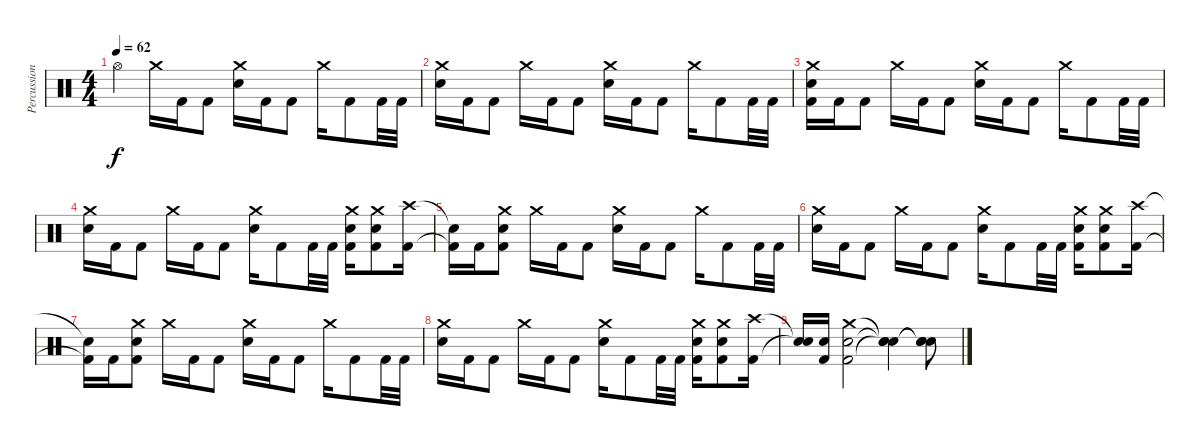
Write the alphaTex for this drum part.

\track ("Percussion" "Percussion") {instrument percussion}
\staff {score}
\articulation defaults
\ts (4 4)
\tempo 62
\clef neutral
\ks c "Hi-Hat (open)".4{dy f} "Crash medium (hit)".16 "Kick (hit) 2".16 "Kick (hit) 2".8
("Crash medium (hit)" "Electric Snare (hit)").16 "Kick (hit) 2".16 "Kick (hit) 2".8 "Crash medium (hit)".16 "Kick (hit) 2".8 "Kick (hit) 2".32 "Kick (hit) 2".32 |
("Crash medium (hit)" "Electric Snare (hit)").16 "Kick (hit) 2".16 "Kick (hit) 2".8 "Crash medium (hit)".16 "Kick (hit) 2".16 "Kick (hit) 2".8 ("Crash medium (hit)" "Electric Snare (hit)").16 "Kick (hit) 2".16 "Kick (hit) 2".8 "Crash medium (hit)".16 "Kick (hit) 2".8 "Kick (hit) 2".32 "Kick (hit) 2".32 |
("Crash medium (hit)" "Electric Snare (hit)" "Kick (hit) 2").16 "Kick (hit) 2".16 "Kick (hit) 2".8 "Crash medium (hit)".16 "Kick (hit) 2".16 "Kick (hit) 2".8 ("Crash medium (hit)" "Electric Snare (hit)").16 "Kick (hit) 2".16 "Kick (hit) 2".8 "Crash medium (hit)".16 "Kick (hit) 2".8 "Kick (hit) 2".32 "Kick (hit) 2".32 |
("Crash medium (hit)" "Electric Snare (hit)").16 "Kick (hit) 2".16 "Kick (hit) 2".8 "Crash medium (hit)".16 "Kick (hit) 2".16 "Kick (hit) 2".8 ("Crash medium (hit)" "Electric Snare (hit)").16 "Kick (hit) 2".8 "Kick (hit) 2".32 "Kick (hit) 2".32 ("Crash medium (hit)" "Electric Snare (hit)" "Kick (hit) 2").16 ("Crash medium (hit)" "Electric Snare (hit)" "Kick (hit) 2").8 ("Crash high (hit)" "Kick (hit) 2").16 |
("Snare (hit)"{t} "Kick (hit) 2"{t}).16 "Kick (hit) 2".16 ("Crash medium (hit)" "Electric Snare (hit)" "Kick (hit) 2").8 "Crash medium (hit)".16 "Kick (hit) 2".16 "Kick (hit) 2".8 ("Crash medium (hit)" "Electric Snare (hit)").16 "Kick (hit) 2".16 "Kick (hit) 2".8 "Crash medium (hit)".16 "Kick (hit) 2".8 "Kick (hit) 2".32 "Kick (hit) 2".32 |
("Crash medium (hit)" "Electric Snare (hit)").16 "Kick (hit) 2".16 "Kick (hit) 2".8 "Crash medium (hit)".16 "Kick (hit) 2".16 "Kick (hit) 2".8 ("Crash medium (hit)" "Electric Snare (hit)").16 "Kick (hit) 2".8 "Kick (hit) 2".32 "Kick (hit) 2".32 ("Crash medium (hit)" "Electric Snare (hit)" "Kick (hit) 2").16 ("Crash medium (hit)" "Electric Snare (hit)" "Kick (hit) 2").8 ("Crash high (hit)" "Kick (hit) 2").16 |
("Snare (hit)"{t} "Kick (hit) 2"{t}).16 "Kick (hit) 2".16 ("Crash medium (hit)" "Electric Snare (hit)" "Kick (hit) 2").8 "Crash medium (hit)".16 "Kick (hit) 2".16 "Kick (hit) 2".8 ("Crash medium (hit)" "Electric Snare (hit)").16 "Kick (hit) 2".16 "Kick (hit) 2".8 "Crash medium (hit)".16 "Kick (hit) 2".8 "Kick (hit) 2".32 "Kick (hit) 2".32 |
("Crash medium (hit)" "Electric Snare (hit)").16 "Kick (hit) 2".16 "Kick (hit) 2".8 "Crash medium (hit)".16 "Kick (hit) 2".16 "Kick (hit) 2".8 ("Crash medium (hit)" "Electric Snare (hit)").16 "Kick (hit) 2".8 "Kick (hit) 2".32 "Kick (hit) 2".32 ("Crash medium (hit)" "Electric Snare (hit)" "Kick (hit) 2").16 ("Crash medium (hit)" "Electric Snare (hit)" "Kick (hit) 2").8 ("Crash high (hit)" "Kick (hit) 2").16 |
("Snare (hit)"{t} "Snare (hit)"{t}).16 ("Electric Snare (hit)" "Kick (hit) 2").16 ("Crash medium (hit)" "Electric Snare (hit)" "Kick (hit) 2").2 ("Snare (hit)"{t} "Snare (hit)"{t} "Snare (hit)"{t}).4 ("Snare (hit)"{t} "Snare (hit)"{t} "Snare (hit)"{t}).8
